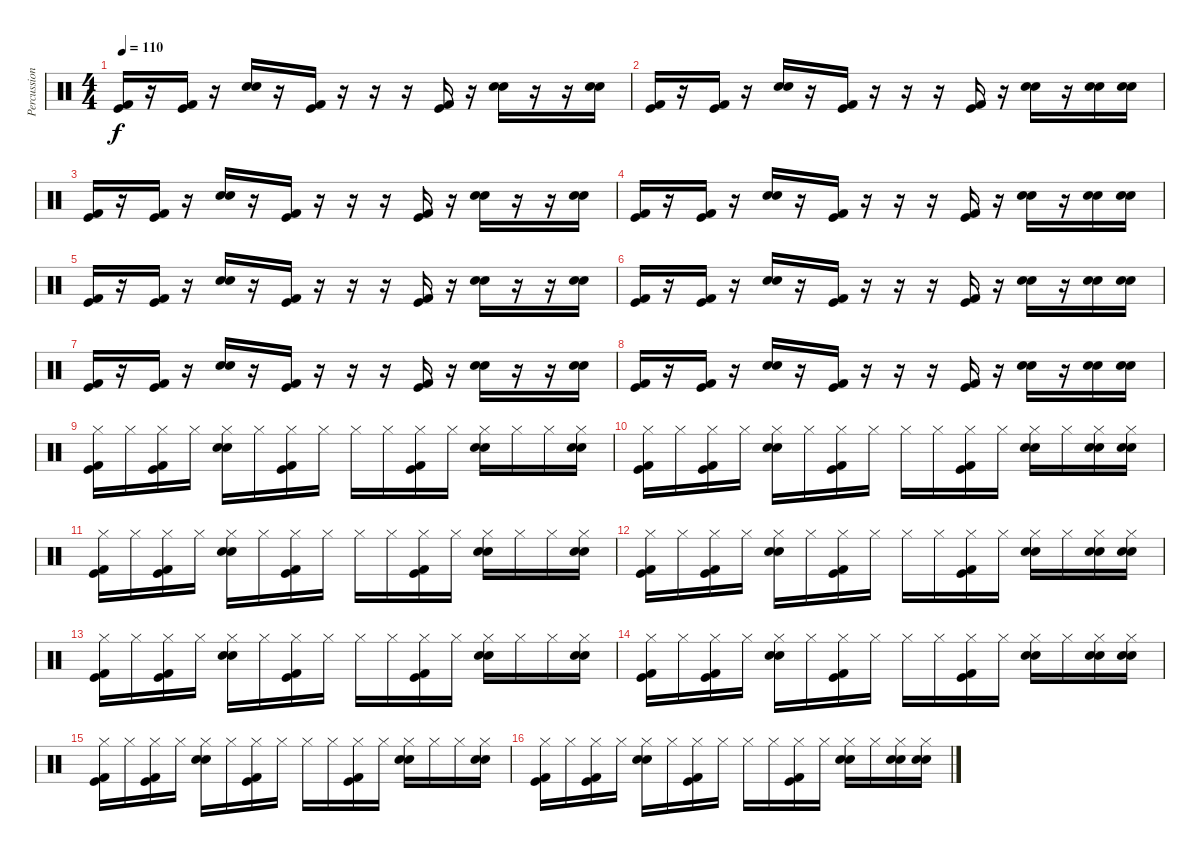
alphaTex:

\track ("Percussion" "Percussion") {instrument percussion}
\staff {score}
\articulation defaults
\ts (4 4)
\tempo 110
\clef neutral
\ks c
("Kick (hit) 2" "Kick (hit)").16{dy f} r.16 ("Kick (hit) 2" "Kick (hit)").16 r.16 ("Electric Snare (hit)" "Snare (hit) 2").16 r.16 ("Kick (hit) 2" "Kick (hit)").16 r.16 r.16 r.16 ("Kick (hit) 2" "Kick (hit)").16 r.16 ("Electric Snare (hit)" "Snare (hit) 2").16 r.16 r.16 ("Electric Snare (hit)" "Snare (hit) 2").16 |
("Kick (hit) 2" "Kick (hit)").16 r.16 ("Kick (hit) 2" "Kick (hit)").16 r.16 ("Electric Snare (hit)" "Snare (hit) 2").16 r.16 ("Kick (hit) 2" "Kick (hit)").16 r.16 r.16 r.16 ("Kick (hit) 2" "Kick (hit)").16 r.16 ("Electric Snare (hit)" "Snare (hit) 2").16 r.16 ("Electric Snare (hit)" "Snare (hit) 2").16 ("Electric Snare (hit)" "Snare (hit) 2").16 |
("Kick (hit) 2" "Kick (hit)").16 r.16 ("Kick (hit) 2" "Kick (hit)").16 r.16 ("Electric Snare (hit)" "Snare (hit) 2").16 r.16 ("Kick (hit) 2" "Kick (hit)").16 r.16 r.16 r.16 ("Kick (hit) 2" "Kick (hit)").16 r.16 ("Electric Snare (hit)" "Snare (hit) 2").16 r.16 r.16 ("Electric Snare (hit)" "Snare (hit) 2").16 |
("Kick (hit) 2" "Kick (hit)").16 r.16 ("Kick (hit) 2" "Kick (hit)").16 r.16 ("Electric Snare (hit)" "Snare (hit) 2").16 r.16 ("Kick (hit) 2" "Kick (hit)").16 r.16 r.16 r.16 ("Kick (hit) 2" "Kick (hit)").16 r.16 ("Electric Snare (hit)" "Snare (hit) 2").16 r.16 ("Electric Snare (hit)" "Snare (hit) 2").16 ("Electric Snare (hit)" "Snare (hit) 2").16 |
("Kick (hit) 2" "Kick (hit)").16 r.16 ("Kick (hit) 2" "Kick (hit)").16 r.16 ("Electric Snare (hit)" "Snare (hit) 2").16 r.16 ("Kick (hit) 2" "Kick (hit)").16 r.16 r.16 r.16 ("Kick (hit) 2" "Kick (hit)").16 r.16 ("Electric Snare (hit)" "Snare (hit) 2").16 r.16 r.16 ("Electric Snare (hit)" "Snare (hit) 2").16 |
("Kick (hit) 2" "Kick (hit)").16 r.16 ("Kick (hit) 2" "Kick (hit)").16 r.16 ("Electric Snare (hit)" "Snare (hit) 2").16 r.16 ("Kick (hit) 2" "Kick (hit)").16 r.16 r.16 r.16 ("Kick (hit) 2" "Kick (hit)").16 r.16 ("Electric Snare (hit)" "Snare (hit) 2").16 r.16 ("Electric Snare (hit)" "Snare (hit) 2").16 ("Electric Snare (hit)" "Snare (hit) 2").16 |
("Kick (hit) 2" "Kick (hit)").16 r.16 ("Kick (hit) 2" "Kick (hit)").16 r.16 ("Electric Snare (hit)" "Snare (hit) 2").16 r.16 ("Kick (hit) 2" "Kick (hit)").16 r.16 r.16 r.16 ("Kick (hit) 2" "Kick (hit)").16 r.16 ("Electric Snare (hit)" "Snare (hit) 2").16 r.16 r.16 ("Electric Snare (hit)" "Snare (hit) 2").16 |
("Kick (hit) 2" "Kick (hit)").16 r.16 ("Kick (hit) 2" "Kick (hit)").16 r.16 ("Electric Snare (hit)" "Snare (hit) 2").16 r.16 ("Kick (hit) 2" "Kick (hit)").16 r.16 r.16 r.16 ("Kick (hit) 2" "Kick (hit)").16 r.16 ("Electric Snare (hit)" "Snare (hit) 2").16 r.16 ("Electric Snare (hit)" "Snare (hit) 2").16 ("Electric Snare (hit)" "Snare (hit) 2").16 |
("Hi-Hat (closed)" "Kick (hit) 2" "Kick (hit)").16 "Hi-Hat (closed)".16 ("Hi-Hat (closed)" "Kick (hit) 2" "Kick (hit)").16 "Hi-Hat (closed)".16 ("Hi-Hat (closed)" "Electric Snare (hit)" "Snare (hit) 2").16 "Hi-Hat (closed)".16 ("Hi-Hat (closed)" "Kick (hit) 2" "Kick (hit)").16 "Hi-Hat (closed)".16 "Hi-Hat (closed)".16 "Hi-Hat (closed)".16 ("Hi-Hat (closed)" "Kick (hit) 2" "Kick (hit)").16 "Hi-Hat (closed)".16 ("Hi-Hat (closed)" "Electric Snare (hit)" "Snare (hit) 2").16 "Hi-Hat (closed)".16 "Hi-Hat (closed)".16 ("Hi-Hat (closed)" "Electric Snare (hit)" "Snare (hit) 2").16 |
("Hi-Hat (closed)" "Kick (hit) 2" "Kick (hit)").16 "Hi-Hat (closed)".16 ("Hi-Hat (closed)" "Kick (hit) 2" "Kick (hit)").16 "Hi-Hat (closed)".16 ("Hi-Hat (closed)" "Electric Snare (hit)" "Snare (hit) 2").16 "Hi-Hat (closed)".16 ("Hi-Hat (closed)" "Kick (hit) 2" "Kick (hit)").16 "Hi-Hat (closed)".16 "Hi-Hat (closed)".16 "Hi-Hat (closed)".16 ("Hi-Hat (closed)" "Kick (hit) 2" "Kick (hit)").16 "Hi-Hat (closed)".16 ("Hi-Hat (closed)" "Electric Snare (hit)" "Snare (hit) 2").16 "Hi-Hat (closed)".16 ("Hi-Hat (closed)" "Electric Snare (hit)" "Snare (hit) 2").16 ("Hi-Hat (closed)" "Electric Snare (hit)" "Snare (hit) 2").16 |
("Hi-Hat (closed)" "Kick (hit) 2" "Kick (hit)").16 "Hi-Hat (closed)".16 ("Hi-Hat (closed)" "Kick (hit) 2" "Kick (hit)").16 "Hi-Hat (closed)".16 ("Hi-Hat (closed)" "Electric Snare (hit)" "Snare (hit) 2").16 "Hi-Hat (closed)".16 ("Hi-Hat (closed)" "Kick (hit) 2" "Kick (hit)").16 "Hi-Hat (closed)".16 "Hi-Hat (closed)".16 "Hi-Hat (closed)".16 ("Hi-Hat (closed)" "Kick (hit) 2" "Kick (hit)").16 "Hi-Hat (closed)".16 ("Hi-Hat (closed)" "Electric Snare (hit)" "Snare (hit) 2").16 "Hi-Hat (closed)".16 "Hi-Hat (closed)".16 ("Hi-Hat (closed)" "Electric Snare (hit)" "Snare (hit) 2").16 |
("Hi-Hat (closed)" "Kick (hit) 2" "Kick (hit)").16 "Hi-Hat (closed)".16 ("Hi-Hat (closed)" "Kick (hit) 2" "Kick (hit)").16 "Hi-Hat (closed)".16 ("Hi-Hat (closed)" "Electric Snare (hit)" "Snare (hit) 2").16 "Hi-Hat (closed)".16 ("Hi-Hat (closed)" "Kick (hit) 2" "Kick (hit)").16 "Hi-Hat (closed)".16 "Hi-Hat (closed)".16 "Hi-Hat (closed)".16 ("Hi-Hat (closed)" "Kick (hit) 2" "Kick (hit)").16 "Hi-Hat (closed)".16 ("Hi-Hat (closed)" "Electric Snare (hit)" "Snare (hit) 2").16 "Hi-Hat (closed)".16 ("Hi-Hat (closed)" "Electric Snare (hit)" "Snare (hit) 2").16 ("Hi-Hat (closed)" "Electric Snare (hit)" "Snare (hit) 2").16 |
("Hi-Hat (closed)" "Kick (hit) 2" "Kick (hit)").16 "Hi-Hat (closed)".16 ("Hi-Hat (closed)" "Kick (hit) 2" "Kick (hit)").16 "Hi-Hat (closed)".16 ("Hi-Hat (closed)" "Electric Snare (hit)" "Snare (hit) 2").16 "Hi-Hat (closed)".16 ("Hi-Hat (closed)" "Kick (hit) 2" "Kick (hit)").16 "Hi-Hat (closed)".16 "Hi-Hat (closed)".16 "Hi-Hat (closed)".16 ("Hi-Hat (closed)" "Kick (hit) 2" "Kick (hit)").16 "Hi-Hat (closed)".16 ("Hi-Hat (closed)" "Electric Snare (hit)" "Snare (hit) 2").16 "Hi-Hat (closed)".16 "Hi-Hat (closed)".16 ("Hi-Hat (closed)" "Electric Snare (hit)" "Snare (hit) 2").16 |
("Hi-Hat (closed)" "Kick (hit) 2" "Kick (hit)").16 "Hi-Hat (closed)".16 ("Hi-Hat (closed)" "Kick (hit) 2" "Kick (hit)").16 "Hi-Hat (closed)".16 ("Hi-Hat (closed)" "Electric Snare (hit)" "Snare (hit) 2").16 "Hi-Hat (closed)".16 ("Hi-Hat (closed)" "Kick (hit) 2" "Kick (hit)").16 "Hi-Hat (closed)".16 "Hi-Hat (closed)".16 "Hi-Hat (closed)".16 ("Hi-Hat (closed)" "Kick (hit) 2" "Kick (hit)").16 "Hi-Hat (closed)".16 ("Hi-Hat (closed)" "Electric Snare (hit)" "Snare (hit) 2").16 "Hi-Hat (closed)".16 ("Hi-Hat (closed)" "Electric Snare (hit)" "Snare (hit) 2").16 ("Hi-Hat (closed)" "Electric Snare (hit)" "Snare (hit) 2").16 |
("Hi-Hat (closed)" "Kick (hit) 2" "Kick (hit)").16 "Hi-Hat (closed)".16 ("Hi-Hat (closed)" "Kick (hit) 2" "Kick (hit)").16 "Hi-Hat (closed)".16 ("Hi-Hat (closed)" "Electric Snare (hit)" "Snare (hit) 2").16 "Hi-Hat (closed)".16 ("Hi-Hat (closed)" "Kick (hit) 2" "Kick (hit)").16 "Hi-Hat (closed)".16 "Hi-Hat (closed)".16 "Hi-Hat (closed)".16 ("Hi-Hat (closed)" "Kick (hit) 2" "Kick (hit)").16 "Hi-Hat (closed)".16 ("Hi-Hat (closed)" "Electric Snare (hit)" "Snare (hit) 2").16 "Hi-Hat (closed)".16 "Hi-Hat (closed)".16 ("Hi-Hat (closed)" "Electric Snare (hit)" "Snare (hit) 2").16 |
("Hi-Hat (closed)" "Kick (hit) 2" "Kick (hit)").16 "Hi-Hat (closed)".16 ("Hi-Hat (closed)" "Kick (hit) 2" "Kick (hit)").16 "Hi-Hat (closed)".16 ("Hi-Hat (closed)" "Electric Snare (hit)" "Snare (hit) 2").16 "Hi-Hat (closed)".16 ("Hi-Hat (closed)" "Kick (hit) 2" "Kick (hit)").16 "Hi-Hat (closed)".16 "Hi-Hat (closed)".16 "Hi-Hat (closed)".16 ("Hi-Hat (closed)" "Kick (hit) 2" "Kick (hit)").16 "Hi-Hat (closed)".16 ("Hi-Hat (closed)" "Electric Snare (hit)" "Snare (hit) 2").16 "Hi-Hat (closed)".16 ("Hi-Hat (closed)" "Electric Snare (hit)" "Snare (hit) 2").16 ("Hi-Hat (closed)" "Electric Snare (hit)" "Snare (hit) 2").16
